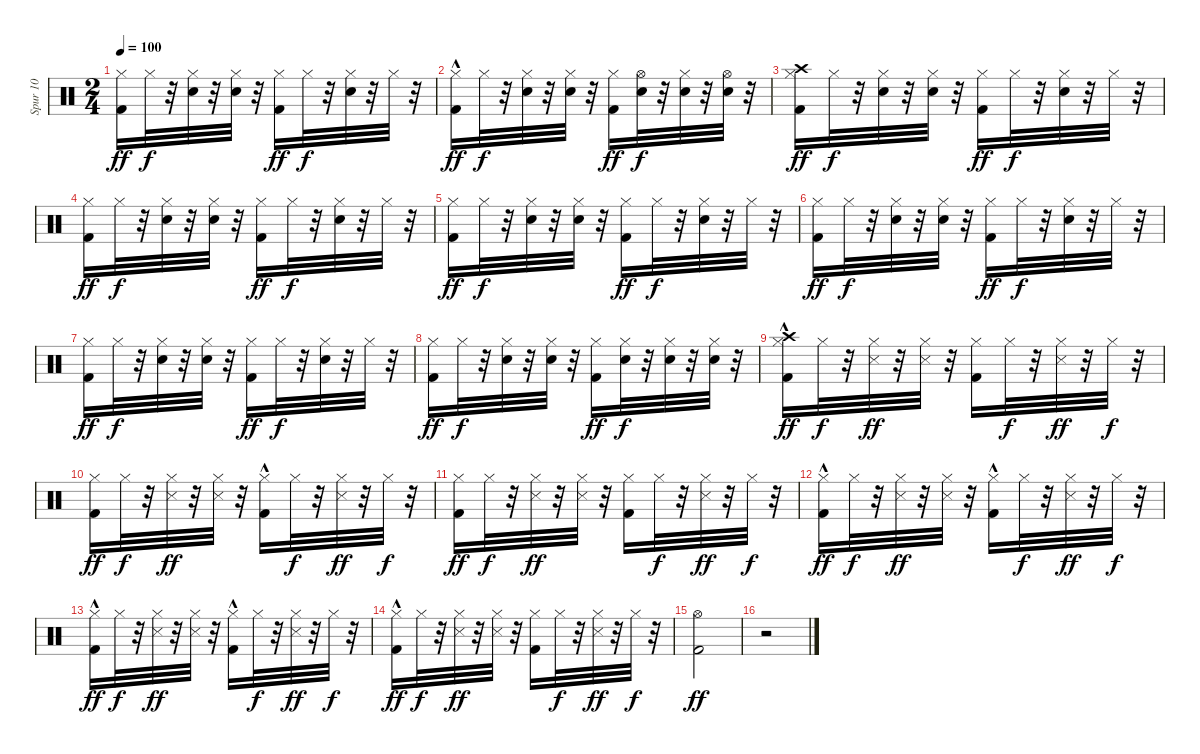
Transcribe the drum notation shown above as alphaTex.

\track ("Spur 10" "Spur 10") {instrument percussion}
\staff {score}
\articulation defaults
\ts (2 4)
\tempo 100
\clef neutral
\ks c
("Hi-Hat (closed)" "Kick (hit) 2").16{dy ff} "Hi-Hat (closed)".32{dy f} r.32 ("Electric Snare (hit)" "Hi-Hat (closed)").32 r.32 ("Hi-Hat (closed)" "Electric Snare (hit)").32 r.32 ("Hi-Hat (closed)" "Kick (hit) 2").16{dy ff} "Hi-Hat (closed)".32{dy f} r.32 ("Electric Snare (hit)" "Hi-Hat (closed)").32 r.32 "Hi-Hat (closed)".32 r.32 |
("Hi-Hat (closed)" "Kick (hit) 2"{hac}).16{dy ff} "Hi-Hat (closed)".32{dy f} r.32 ("Hi-Hat (closed)" "Electric Snare (hit)").32 r.32 ("Hi-Hat (closed)" "Electric Snare (hit)").32 r.32 ("Kick (hit) 2" "Hi-Hat (closed)").16{dy ff} ("Hi-Hat (open)" "Electric Snare (hit)").32{dy f} r.32 ("Hi-Hat (closed)" "Electric Snare (hit)").32 r.32 ("Hi-Hat (open)" "Electric Snare (hit)").32 r.32 |
("Crash high (hit)" "Kick (hit) 2" "Hi-Hat (closed)").16{dy ff volume 14} "Hi-Hat (closed)".32{dy f} r.32 ("Electric Snare (hit)" "Hi-Hat (closed)").32 r.32 ("Electric Snare (hit)" "Hi-Hat (closed)").32 r.32 ("Hi-Hat (closed)" "Kick (hit) 2").16{dy ff} "Hi-Hat (closed)".32{dy f} r.32 ("Electric Snare (hit)" "Hi-Hat (closed)").32 r.32 "Hi-Hat (closed)".32 r.32 |
("Hi-Hat (closed)" "Kick (hit) 2").16{dy ff} "Hi-Hat (closed)".32{dy f} r.32 ("Hi-Hat (closed)" "Electric Snare (hit)").32 r.32 ("Hi-Hat (closed)" "Electric Snare (hit)").32 r.32 ("Kick (hit) 2" "Hi-Hat (closed)").16{dy ff} "Hi-Hat (closed)".32{dy f} r.32 ("Electric Snare (hit)" "Hi-Hat (closed)").32 r.32 "Hi-Hat (closed)".32 r.32 |
("Kick (hit) 2" "Hi-Hat (closed)").16{dy ff} "Hi-Hat (closed)".32{dy f} r.32 ("Hi-Hat (closed)" "Electric Snare (hit)").32 r.32 ("Hi-Hat (closed)" "Electric Snare (hit)").32 r.32 ("Kick (hit) 2" "Hi-Hat (closed)").16{dy ff} "Hi-Hat (closed)".32{dy f} r.32 ("Hi-Hat (closed)" "Electric Snare (hit)").32 r.32 "Hi-Hat (closed)".32 r.32 |
("Hi-Hat (closed)" "Kick (hit) 2").16{dy ff} "Hi-Hat (closed)".32{dy f} r.32 ("Hi-Hat (closed)" "Electric Snare (hit)").32 r.32 ("Electric Snare (hit)" "Hi-Hat (closed)").32 r.32 ("Kick (hit) 2" "Hi-Hat (closed)").16{dy ff} "Hi-Hat (closed)".32{dy f} r.32 ("Electric Snare (hit)" "Hi-Hat (closed)").32 r.32 "Hi-Hat (closed)".32 r.32 |
("Kick (hit) 2" "Hi-Hat (closed)").16{dy ff} "Hi-Hat (closed)".32{dy f} r.32 ("Electric Snare (hit)" "Hi-Hat (closed)").32 r.32 ("Electric Snare (hit)" "Hi-Hat (closed)").32 r.32 ("Kick (hit) 2" "Hi-Hat (closed)").16{dy ff} "Hi-Hat (closed)".32{dy f} r.32 ("Electric Snare (hit)" "Hi-Hat (closed)").32 r.32 "Hi-Hat (closed)".32 r.32 |
("Hi-Hat (closed)" "Kick (hit) 2").16{dy ff} "Hi-Hat (closed)".32{dy f} r.32 ("Electric Snare (hit)" "Hi-Hat (closed)").32 r.32 ("Electric Snare (hit)" "Hi-Hat (closed)").32 r.32 ("Kick (hit) 2" "Hi-Hat (closed)").16{dy ff} ("Hi-Hat (closed)" "Electric Snare (hit)").32{dy f} r.32 ("Hi-Hat (closed)" "Electric Snare (hit)").32 r.32 ("Electric Snare (hit)" "Hi-Hat (closed)").32 r.32 |
("Hi-Hat (closed)" "Crash high (hit)" "Kick (hit) 2"{hac}).16{dy ff volume 14} "Hi-Hat (closed)".32{dy f} r.32 ("Hi-Hat (closed)" "Snare (side stick) 3").32{dy ff} r.32 ("Hi-Hat (closed)" "Snare (side stick) 3").32 r.32 ("Kick (hit) 2" "Hi-Hat (closed)").16 "Hi-Hat (closed)".32{dy f} r.32 ("Snare (side stick) 3" "Hi-Hat (closed)").32{dy ff} r.32 "Hi-Hat (closed)".32{dy f} r.32 |
("Kick (hit) 2" "Hi-Hat (closed)").16{dy ff} "Hi-Hat (closed)".32{dy f} r.32 ("Snare (side stick) 3" "Hi-Hat (closed)").32{dy ff} r.32 ("Hi-Hat (closed)" "Snare (side stick) 3").32 r.32 ("Hi-Hat (closed)" "Kick (hit) 2"{hac}).16 "Hi-Hat (closed)".32{dy f} r.32 ("Hi-Hat (closed)" "Snare (side stick) 3").32{dy ff} r.32 "Hi-Hat (closed)".32{dy f} r.32 |
("Hi-Hat (closed)" "Kick (hit) 2").16{dy ff} "Hi-Hat (closed)".32{dy f} r.32 ("Snare (side stick) 3" "Hi-Hat (closed)").32{dy ff} r.32 ("Hi-Hat (closed)" "Snare (side stick) 3").32 r.32 ("Kick (hit) 2" "Hi-Hat (closed)").16 "Hi-Hat (closed)".32{dy f} r.32 ("Snare (side stick) 3" "Hi-Hat (closed)").32{dy ff} r.32 "Hi-Hat (closed)".32{dy f} r.32 |
("Kick (hit) 2"{hac} "Hi-Hat (closed)").16{dy ff} "Hi-Hat (closed)".32{dy f} r.32 ("Snare (side stick) 3" "Hi-Hat (closed)").32{dy ff} r.32 ("Snare (side stick) 3" "Hi-Hat (closed)").32 r.32 ("Kick (hit) 2"{hac} "Hi-Hat (closed)").16 "Hi-Hat (closed)".32{dy f} r.32 ("Snare (side stick) 3" "Hi-Hat (closed)").32{dy ff} r.32 "Hi-Hat (closed)".32{dy f} r.32 |
("Kick (hit) 2"{hac} "Hi-Hat (closed)").16{dy ff} "Hi-Hat (closed)".32{dy f} r.32 ("Snare (side stick) 3" "Hi-Hat (closed)").32{dy ff} r.32 ("Snare (side stick) 3" "Hi-Hat (closed)").32 r.32 ("Kick (hit) 2"{hac} "Hi-Hat (closed)").16 "Hi-Hat (closed)".32{dy f} r.32 ("Snare (side stick) 3" "Hi-Hat (closed)").32{dy ff} r.32 "Hi-Hat (closed)".32{dy f} r.32 |
("Kick (hit) 2"{hac} "Hi-Hat (closed)").16{dy ff} "Hi-Hat (closed)".32{dy f} r.32 ("Snare (side stick) 3" "Hi-Hat (closed)").32{dy ff} r.32 ("Snare (side stick) 3" "Hi-Hat (closed)").32 r.32 ("Kick (hit) 2" "Hi-Hat (closed)").16 "Hi-Hat (closed)".32{dy f} r.32 ("Snare (side stick) 3" "Hi-Hat (closed)").32{dy ff} r.32 "Hi-Hat (closed)".32{dy f} r.32 |
("Kick (hit) 2" "Hi-Hat (open)").2{dy ff} |
r.2
